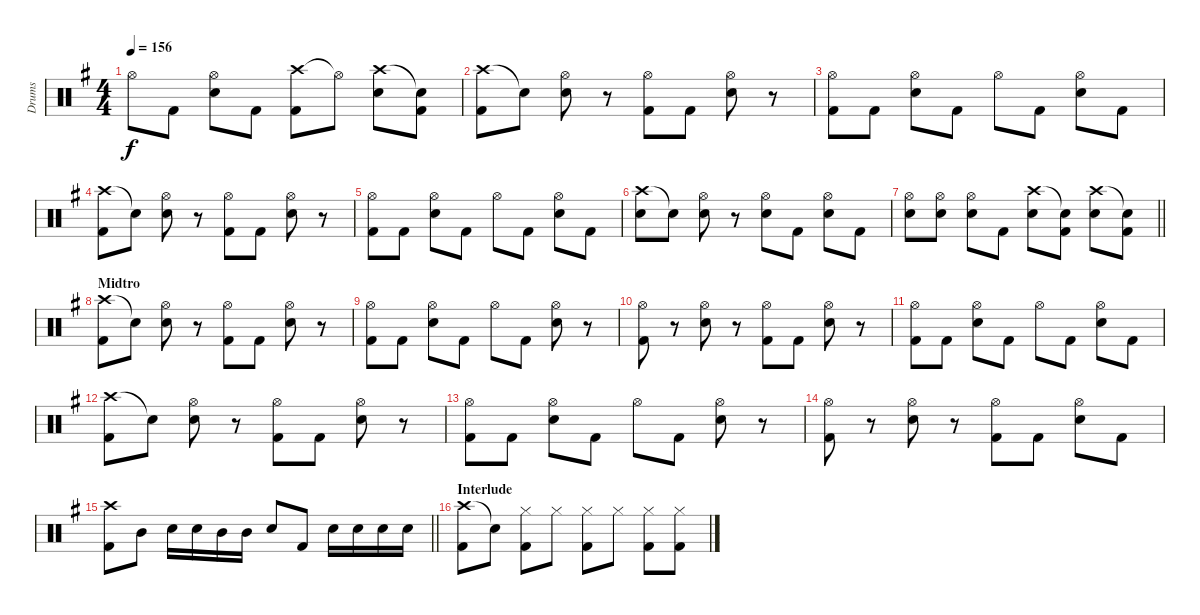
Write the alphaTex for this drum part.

\track ("Drums" "Drums") {instrument percussion}
\staff {score}
\articulation defaults
\ts (4 4)
\tempo 156
\clef neutral
\ks g "Hi-Hat (open)".8{dy f} "Kick (hit) 2".8
("Hi-Hat (open)" "Snare (hit) 2").8 "Kick (hit) 2".8 ("Crash high (hit)" "Kick (hit) 2").8 "Hi-Hat (open)"{t}.8 ("Crash high (hit)" "Snare (hit) 2").8 ("Snare (hit)"{t} "Kick (hit) 2").8 |
("Crash high (hit)" "Kick (hit) 2").8 "Snare (hit)"{t}.8 ("Hi-Hat (open)" "Snare (hit) 2").8 r.8 ("Hi-Hat (open)" "Kick (hit) 2").8 "Kick (hit) 2".8 ("Hi-Hat (open)" "Snare (hit) 2").8 r.8 |
("Hi-Hat (open)" "Kick (hit) 2").8 "Kick (hit) 2".8 ("Hi-Hat (open)" "Snare (hit) 2").8 "Kick (hit) 2".8 "Hi-Hat (open)".8 "Kick (hit) 2".8 ("Hi-Hat (open)" "Snare (hit) 2").8 "Kick (hit) 2".8 |
("Crash high (hit)" "Kick (hit) 2").8 "Snare (hit)"{t}.8 ("Hi-Hat (open)" "Snare (hit) 2").8 r.8 ("Hi-Hat (open)" "Kick (hit) 2").8 "Kick (hit) 2".8 ("Hi-Hat (open)" "Snare (hit) 2").8 r.8 |
("Hi-Hat (open)" "Kick (hit) 2").8 "Kick (hit) 2".8 ("Hi-Hat (open)" "Snare (hit) 2").8 "Kick (hit) 2".8 "Hi-Hat (open)".8 "Kick (hit) 2".8 ("Hi-Hat (open)" "Snare (hit) 2").8 "Kick (hit) 2".8 |
("Crash high (hit)" "Snare (hit) 2").8 "Snare (hit)"{t}.8 ("Hi-Hat (open)" "Snare (hit) 2").8 r.8 ("Hi-Hat (open)" "Snare (hit) 2").8 "Kick (hit) 2".8 ("Hi-Hat (open)" "Snare (hit) 2").8 "Kick (hit) 2".8 |
\barLineRight lightlight
("Hi-Hat (open)" "Snare (hit) 2").8 ("Hi-Hat (open)" "Snare (hit) 2").8 ("Hi-Hat (open)" "Snare (hit) 2").8 "Kick (hit) 2".8 ("Crash high (hit)" "Snare (hit) 2").8 ("Snare (hit)"{t} "Kick (hit) 2").8 ("Crash high (hit)" "Snare (hit) 2").8 ("Snare (hit)"{t} "Kick (hit) 2").8 |
\section ("" "Midtro")
("Crash high (hit)" "Kick (hit) 2").8 "Snare (hit)"{t}.8 ("Hi-Hat (open)" "Snare (hit) 2").8 r.8 ("Hi-Hat (open)" "Kick (hit) 2").8 "Kick (hit) 2".8 ("Hi-Hat (open)" "Snare (hit) 2").8 r.8 |
("Hi-Hat (open)" "Kick (hit) 2").8 "Kick (hit) 2".8 ("Hi-Hat (open)" "Snare (hit) 2").8 "Kick (hit) 2".8 "Hi-Hat (open)".8 "Kick (hit) 2".8 ("Hi-Hat (open)" "Snare (hit) 2").8 r.8 |
("Hi-Hat (open)" "Kick (hit) 2").8 r.8 ("Hi-Hat (open)" "Snare (hit) 2").8 r.8 ("Hi-Hat (open)" "Kick (hit) 2").8 "Kick (hit) 2".8 ("Hi-Hat (open)" "Snare (hit) 2").8 r.8 |
("Hi-Hat (open)" "Kick (hit) 2").8 "Kick (hit) 2".8 ("Hi-Hat (open)" "Snare (hit) 2").8 "Kick (hit) 2".8 "Hi-Hat (open)".8 "Kick (hit) 2".8 ("Hi-Hat (open)" "Snare (hit) 2").8 "Kick (hit) 2".8 |
("Crash high (hit)" "Kick (hit) 2").8 "Snare (hit)"{t}.8 ("Hi-Hat (open)" "Snare (hit) 2").8 r.8 ("Hi-Hat (open)" "Kick (hit) 2").8 "Kick (hit) 2".8 ("Hi-Hat (open)" "Snare (hit) 2").8 r.8 |
("Hi-Hat (open)" "Kick (hit) 2").8 "Kick (hit) 2".8 ("Hi-Hat (open)" "Snare (hit) 2").8 "Kick (hit) 2".8 "Hi-Hat (open)".8 "Kick (hit) 2".8 ("Hi-Hat (open)" "Snare (hit) 2").8 r.8 |
("Hi-Hat (open)" "Kick (hit) 2").8 r.8 ("Hi-Hat (open)" "Snare (hit) 2").8 r.8 ("Hi-Hat (open)" "Kick (hit) 2").8 "Kick (hit) 2".8 ("Hi-Hat (open)" "Snare (hit) 2").8 "Kick (hit) 2".8 |
\barLineRight lightlight
("Crash high (hit)" "Kick (hit) 2").8 "Mid Tom (hit)".8 "Snare (hit) 2".16 "Snare (hit) 2".16 "Mid Tom (hit)".16 "Mid Tom (hit)".16 "Snare (hit) 2".8 "Kick (hit) 2".8 "Snare (hit) 2".16 "Snare (hit) 2".16 "Snare (hit) 2".16 "Snare (hit) 2".16 |
\section ("" "Interlude")
("Crash high (hit)" "Kick (hit) 2").8 "Snare (hit)"{t}.8 ("Hi-Hat (closed)" "Kick (hit) 2").8 "Hi-Hat (closed)".8 ("Hi-Hat (closed)" "Kick (hit) 2").8 "Hi-Hat (closed)".8 ("Hi-Hat (closed)" "Kick (hit) 2").8 ("Hi-Hat (closed)" "Kick (hit) 2").8
